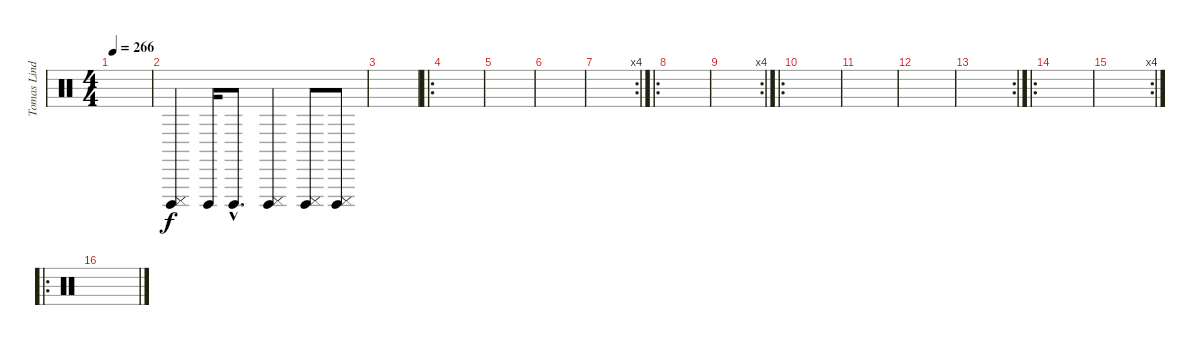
\track ("Tomas Lindberg " "Tomas Lind") {instrument percussion}
\staff {score}
\articulation defaults
\ts (4 4)
\tempo 266
\clef neutral
\ks c
|
("Cuica (open)" "Cuica (mute)").4 "Cuica (open)".16 "Cuica (open)"{hac}.8{d} ("Cuica (open)" "Cuica (mute)").4 ("Cuica (open)" "Cuica (mute)").8 ("Cuica (open)" "Cuica (mute)").8 |
|
\ro
|
|
|
\rc 4
|
\ro
|
\rc 4
|
\ro
|
|
|
\rc 2
|
\ro
|
\rc 4
|
\ro
